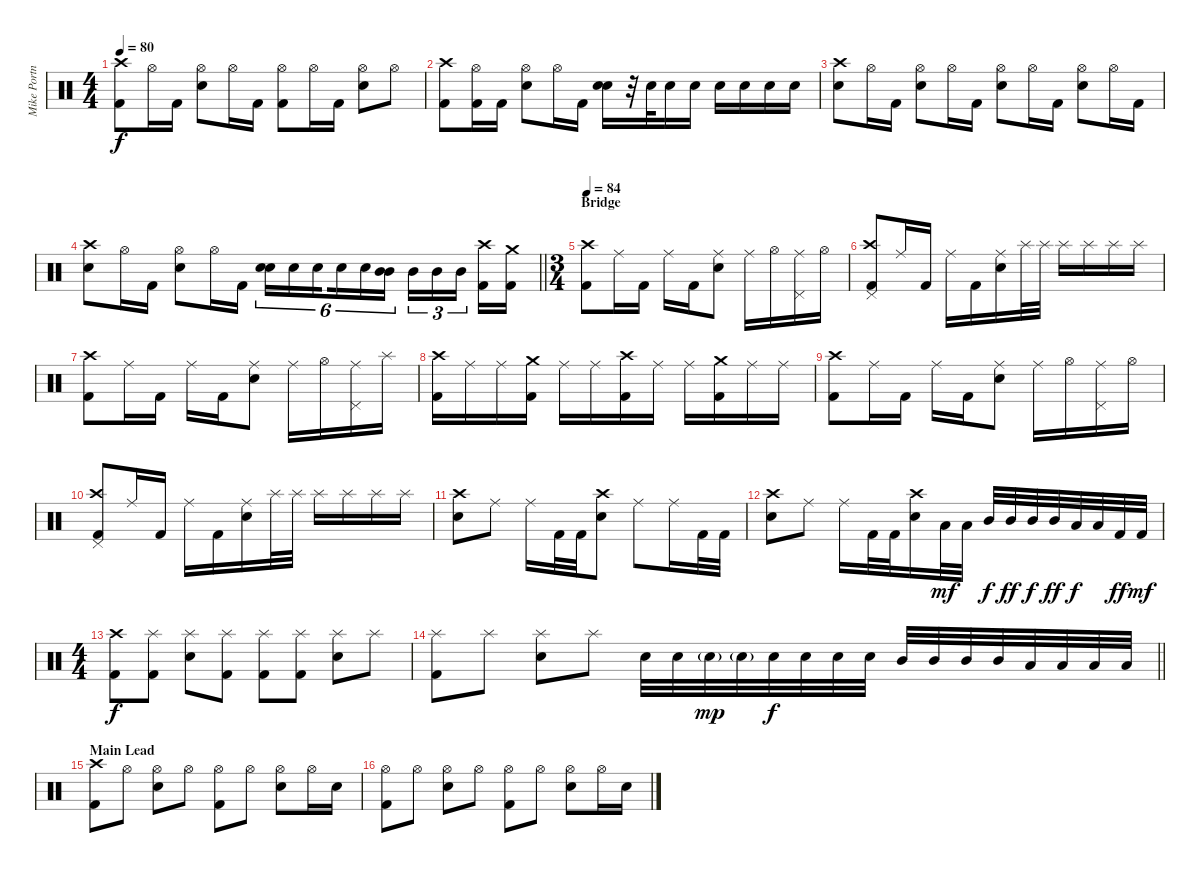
\track ("Mike Portnoy" "Mike Portn") {instrument percussion}
\staff {score}
\articulation defaults
\ts (4 4)
\tempo 80
\clef neutral
\ks c
("Kick (hit) 2" "Crash high (hit)").8{dy f} "Hi-Hat (open)".16 "Kick (hit) 2".16 ("Electric Snare (hit)" "Hi-Hat (open)").8 "Hi-Hat (open)".16 "Kick (hit) 2".16 ("Kick (hit) 2" "Hi-Hat (open)").8 "Hi-Hat (open)".16 "Kick (hit) 2".16 ("Electric Snare (hit)" "Hi-Hat (open)").8 "Hi-Hat (open)".8 |
("Kick (hit) 2" "Crash high (hit)").8 ("Kick (hit) 2" "Hi-Hat (open)").16 "Kick (hit) 2".16 ("Electric Snare (hit)" "Hi-Hat (open)").8 "Hi-Hat (open)".16 "Kick (hit) 2".16 ("Electric Snare (hit)" "Electric Snare (hit)").16{bu 240} r.32 "Electric Snare (hit)".32 "Electric Snare (hit)".16 "Electric Snare (hit)".16 "Electric Snare (hit)".16 "Electric Snare (hit)".16 "Electric Snare (hit)".16 "Electric Snare (hit)".16 |
("Crash high (hit)" "Electric Snare (hit)").8 "Hi-Hat (open)".16 "Kick (hit) 2".16 ("Hi-Hat (open)" "Electric Snare (hit)").8 "Hi-Hat (open)".16 "Kick (hit) 2".16 ("Hi-Hat (open)" "Electric Snare (hit)").8 "Hi-Hat (open)".16 "Kick (hit) 2".16 ("Hi-Hat (open)" "Electric Snare (hit)").8 "Hi-Hat (open)".16 "Kick (hit) 2".16 |
\barLineRight lightlight
("Crash high (hit)" "Electric Snare (hit)").8 "Hi-Hat (open)".16 "Kick (hit) 2".16 ("Hi-Hat (open)" "Electric Snare (hit)").8 "Hi-Hat (open)".16 "Kick (hit) 2".16 ("Electric Snare (hit)" "Electric Snare (hit)").16{tu (6 4) bu 240} "Electric Snare (hit)".16{tu (6 4)} "Electric Snare (hit)".16{tu (6 4) beam splitsecondary} "Electric Snare (hit)".16{tu (6 4)} "Electric Snare (hit)".16{tu (6 4)} ("Mid Tom (hit)" "Mid Tom (hit)").16{tu (6 4) bu 240} "Mid Tom (hit)".16{tu (3 2)} "Mid Tom (hit)".16{tu (3 2)} "Mid Tom (hit)".16{tu (3 2) beam splitsecondary} ("Kick (hit) 2" "Crash high (hit)").16 ("Kick (hit) 2" "Crash medium (hit)").16 |
\ts (3 4)
\section ("" "Bridge")
\tempo 84
("Kick (hit) 2" "Crash high (hit)").8 "Ride (middle)".16 "Kick (hit) 2".16 "Ride (middle)".16 "Kick (hit) 2".16 ("Electric Snare (hit)" "Ride (middle)").8 "Ride (middle)".16 "Hi-Hat (open)".16 ("Pedal Hi-Hat (hit)" "Ride (middle)").16 "Hi-Hat (open)".16 |
("Kick (hit) 2" "Pedal Hi-Hat (hit)" "Crash high (hit)").8 "Ride (middle)".16 "Kick (hit) 2".16 "Ride (middle)".16 "Kick (hit) 2".16 ("Electric Snare (hit)" "Ride (middle)").16 "Splash (hit)".32 "Splash (hit)".32 "Splash (hit)".16 "Splash (hit)".16 "Splash (hit)".16 "Splash (hit)".16 |
("Kick (hit) 2" "Crash high (hit)").8 "Ride (middle)".16 "Kick (hit) 2".16 "Ride (middle)".16 "Kick (hit) 2".16 ("Electric Snare (hit)" "Ride (middle)").8 "Ride (middle)".16 "Hi-Hat (open)".16 ("Pedal Hi-Hat (hit)" "Ride (middle)").16 "Splash (hit)".16 |
("Kick (hit) 2" "Crash high (hit)").16 "Ride (middle)".16 "Ride (middle)".16 ("Kick (hit) 2" "Crash medium (hit)").16 "Ride (middle)".16 "Ride (middle)".16 ("Kick (hit) 2" "Crash high (hit)").16 "Ride (middle)".16 "Ride (middle)".16 ("Kick (hit) 2" "Crash medium (hit)").16 "Ride (middle)".16 "Ride (middle)".16 |
("Kick (hit) 2" "Crash high (hit)").8 "Ride (middle)".16 "Kick (hit) 2".16 "Ride (middle)".16 "Kick (hit) 2".16 ("Electric Snare (hit)" "Ride (middle)").8 "Ride (middle)".16 "Hi-Hat (open)".16 ("Pedal Hi-Hat (hit)" "Ride (middle)").16 "Hi-Hat (open)".16 |
("Kick (hit) 2" "Pedal Hi-Hat (hit)" "Crash high (hit)").8 "Ride (middle)".16 "Kick (hit) 2".16 "Ride (middle)".16 "Kick (hit) 2".16 ("Electric Snare (hit)" "Ride (middle)").16 "Splash (hit)".32 "Splash (hit)".32 "Splash (hit)".16 "Splash (hit)".16 "Splash (hit)".16 "Splash (hit)".16 |
("Electric Snare (hit)" "Crash high (hit)").8 "Ride (middle)".8 "Ride (middle)".16 "Kick (hit) 2".32 "Kick (hit) 2".32 ("Electric Snare (hit)" "Crash high (hit)").8 "Ride (middle)".8 "Ride (middle)".16 "Kick (hit) 2".32 "Kick (hit) 2".32 |
("Electric Snare (hit)" "Crash high (hit)").8 "Ride (middle)".8 "Ride (middle)".16 "Kick (hit) 2".32 "Kick (hit) 2".32 ("Electric Snare (hit)" "Crash high (hit)").16 "Low Tom (hit)".32{dy mf} "Low Tom (hit)".32 "Mid Tom (hit)".32{dy f} "Mid Tom (hit)".32{dy ff} "Mid Tom (hit)".32{dy f} "Mid Tom (hit)".32{dy ff} "Low Tom (hit)".32{dy f} "Low Tom (hit)".32 "Kick (hit) 2".32{dy ff} "Kick (hit) 2".32{dy mf} |
\ts (4 4)
("Kick (hit) 2" "Crash high (hit)").8{dy f} ("Kick (hit) 2" "Splash (hit)").8 ("Electric Snare (hit)" "Splash (hit)").8 ("Kick (hit) 2" "Splash (hit)").8 ("Kick (hit) 2" "Splash (hit)").8 ("Kick (hit) 2" "Splash (hit)").8 ("Electric Snare (hit)" "Splash (hit)").8 "Splash (hit)".8 |
\barLineRight lightlight
("Kick (hit) 2" "Splash (hit)").8 "Splash (hit)".8 ("Electric Snare (hit)" "Splash (hit)").8 "Splash (hit)".8 "Electric Snare (hit)".32 "Electric Snare (hit)".32 "Electric Snare (hit)"{g}.32{dy mp} "Electric Snare (hit)"{g}.32 "Electric Snare (hit)".32{dy f} "Electric Snare (hit)".32 "Electric Snare (hit)".32 "Electric Snare (hit)".32 "Mid Tom (hit)".32 "Mid Tom (hit)".32 "Mid Tom (hit)".32 "Mid Tom (hit)".32 "Low Tom (hit)".32 "Low Tom (hit)".32 "Low Tom (hit)".32 "Low Tom (hit)".32 |
\section ("" "Main Lead")
("Kick (hit) 2" "Crash high (hit)").8 "Hi-Hat (open)".8 ("Electric Snare (hit)" "Hi-Hat (open)").8 "Hi-Hat (open)".8 ("Kick (hit) 2" "Hi-Hat (open)").8 "Hi-Hat (open)".8 ("Electric Snare (hit)" "Hi-Hat (open)").8 "Hi-Hat (open)".16 "Electric Snare (hit)".16 |
("Kick (hit) 2" "Hi-Hat (open)").8 "Hi-Hat (open)".8 ("Electric Snare (hit)" "Hi-Hat (open)").8 "Hi-Hat (open)".8 ("Kick (hit) 2" "Hi-Hat (open)").8 "Hi-Hat (open)".8 ("Electric Snare (hit)" "Hi-Hat (open)").8 "Hi-Hat (open)".16 "Electric Snare (hit)".16
